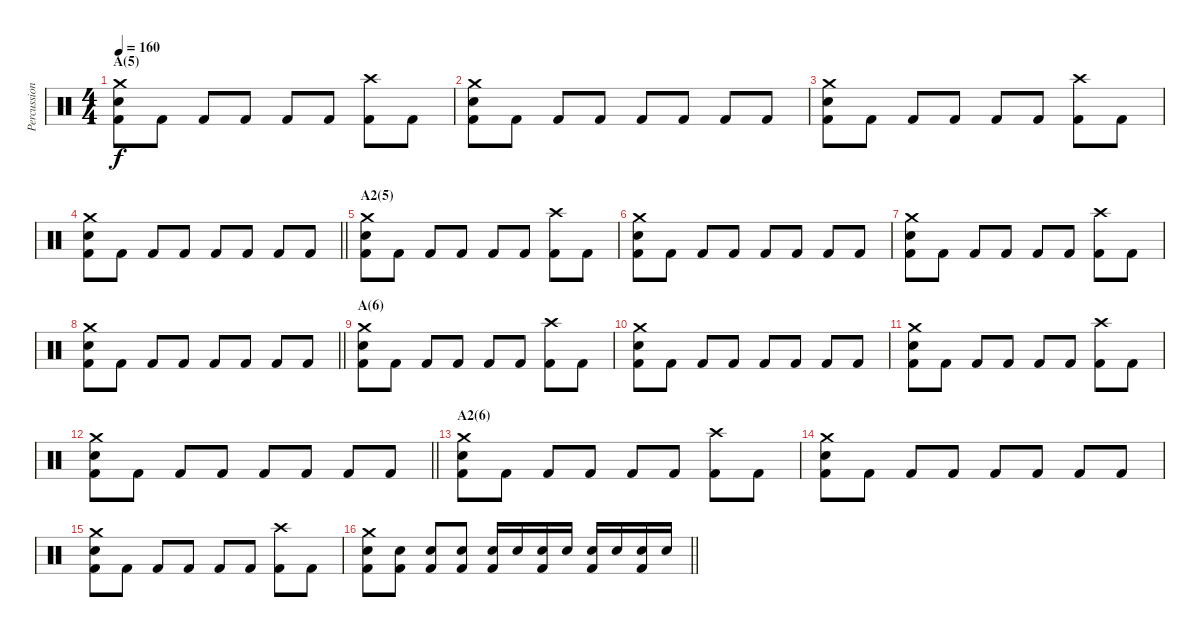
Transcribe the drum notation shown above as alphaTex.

\track ("Percussion" "Percussion") {instrument percussion}
\staff {score}
\articulation defaults
\ts (4 4)
\section ("" "A(5)")
\tempo 160
\clef neutral
\ks c
("Crash medium (hit)" "Electric Snare (hit)" "Kick (hit) 2").8{dy f} "Kick (hit) 2".8 "Kick (hit) 2".8 "Kick (hit) 2".8 "Kick (hit) 2".8 "Kick (hit) 2".8 ("Crash high (hit)" "Kick (hit) 2").8 "Kick (hit) 2".8 |
("Crash medium (hit)" "Electric Snare (hit)" "Kick (hit) 2").8 "Kick (hit) 2".8 "Kick (hit) 2".8 "Kick (hit) 2".8 "Kick (hit) 2".8 "Kick (hit) 2".8 "Kick (hit) 2".8 "Kick (hit) 2".8 |
("Crash medium (hit)" "Electric Snare (hit)" "Kick (hit) 2").8 "Kick (hit) 2".8 "Kick (hit) 2".8 "Kick (hit) 2".8 "Kick (hit) 2".8 "Kick (hit) 2".8 ("Crash high (hit)" "Kick (hit) 2").8 "Kick (hit) 2".8 |
\barLineRight lightlight
("Crash medium (hit)" "Electric Snare (hit)" "Kick (hit) 2").8 "Kick (hit) 2".8 "Kick (hit) 2".8 "Kick (hit) 2".8 "Kick (hit) 2".8 "Kick (hit) 2".8 "Kick (hit) 2".8 "Kick (hit) 2".8 |
\section ("" "A2(5)")
("Crash medium (hit)" "Electric Snare (hit)" "Kick (hit) 2").8 "Kick (hit) 2".8 "Kick (hit) 2".8 "Kick (hit) 2".8 "Kick (hit) 2".8 "Kick (hit) 2".8 ("Crash high (hit)" "Kick (hit) 2").8 "Kick (hit) 2".8 |
("Crash medium (hit)" "Electric Snare (hit)" "Kick (hit) 2").8 "Kick (hit) 2".8 "Kick (hit) 2".8 "Kick (hit) 2".8 "Kick (hit) 2".8 "Kick (hit) 2".8 "Kick (hit) 2".8 "Kick (hit) 2".8 |
("Crash medium (hit)" "Electric Snare (hit)" "Kick (hit) 2").8 "Kick (hit) 2".8 "Kick (hit) 2".8 "Kick (hit) 2".8 "Kick (hit) 2".8 "Kick (hit) 2".8 ("Crash high (hit)" "Kick (hit) 2").8 "Kick (hit) 2".8 |
\barLineRight lightlight
("Crash medium (hit)" "Electric Snare (hit)" "Kick (hit) 2").8 "Kick (hit) 2".8 "Kick (hit) 2".8 "Kick (hit) 2".8 "Kick (hit) 2".8 "Kick (hit) 2".8 "Kick (hit) 2".8 "Kick (hit) 2".8 |
\section ("" "A(6)")
("Crash medium (hit)" "Electric Snare (hit)" "Kick (hit) 2").8 "Kick (hit) 2".8 "Kick (hit) 2".8 "Kick (hit) 2".8 "Kick (hit) 2".8 "Kick (hit) 2".8 ("Crash high (hit)" "Kick (hit) 2").8 "Kick (hit) 2".8 |
("Crash medium (hit)" "Electric Snare (hit)" "Kick (hit) 2").8 "Kick (hit) 2".8 "Kick (hit) 2".8 "Kick (hit) 2".8 "Kick (hit) 2".8 "Kick (hit) 2".8 "Kick (hit) 2".8 "Kick (hit) 2".8 |
("Crash medium (hit)" "Electric Snare (hit)" "Kick (hit) 2").8 "Kick (hit) 2".8 "Kick (hit) 2".8 "Kick (hit) 2".8 "Kick (hit) 2".8 "Kick (hit) 2".8 ("Crash high (hit)" "Kick (hit) 2").8 "Kick (hit) 2".8 |
\barLineRight lightlight
("Crash medium (hit)" "Electric Snare (hit)" "Kick (hit) 2").8 "Kick (hit) 2".8 "Kick (hit) 2".8 "Kick (hit) 2".8 "Kick (hit) 2".8 "Kick (hit) 2".8 "Kick (hit) 2".8 "Kick (hit) 2".8 |
\section ("" "A2(6)")
("Crash medium (hit)" "Electric Snare (hit)" "Kick (hit) 2").8 "Kick (hit) 2".8 "Kick (hit) 2".8 "Kick (hit) 2".8 "Kick (hit) 2".8 "Kick (hit) 2".8 ("Crash high (hit)" "Kick (hit) 2").8 "Kick (hit) 2".8 |
("Crash medium (hit)" "Electric Snare (hit)" "Kick (hit) 2").8 "Kick (hit) 2".8 "Kick (hit) 2".8 "Kick (hit) 2".8 "Kick (hit) 2".8 "Kick (hit) 2".8 "Kick (hit) 2".8 "Kick (hit) 2".8 |
("Crash medium (hit)" "Electric Snare (hit)" "Kick (hit) 2").8 "Kick (hit) 2".8 "Kick (hit) 2".8 "Kick (hit) 2".8 "Kick (hit) 2".8 "Kick (hit) 2".8 ("Crash high (hit)" "Kick (hit) 2").8 "Kick (hit) 2".8 |
\barLineRight lightlight
("Crash medium (hit)" "Electric Snare (hit)" "Kick (hit) 2").8 ("Electric Snare (hit)" "Kick (hit) 2").8 ("Electric Snare (hit)" "Kick (hit) 2").8 ("Electric Snare (hit)" "Kick (hit) 2").8 ("Electric Snare (hit)" "Kick (hit) 2").16 "Electric Snare (hit)".16 ("Electric Snare (hit)" "Kick (hit) 2").16 "Electric Snare (hit)".16 ("Electric Snare (hit)" "Kick (hit) 2").16 "Electric Snare (hit)".16 ("Electric Snare (hit)" "Kick (hit) 2").16 "Electric Snare (hit)".16
